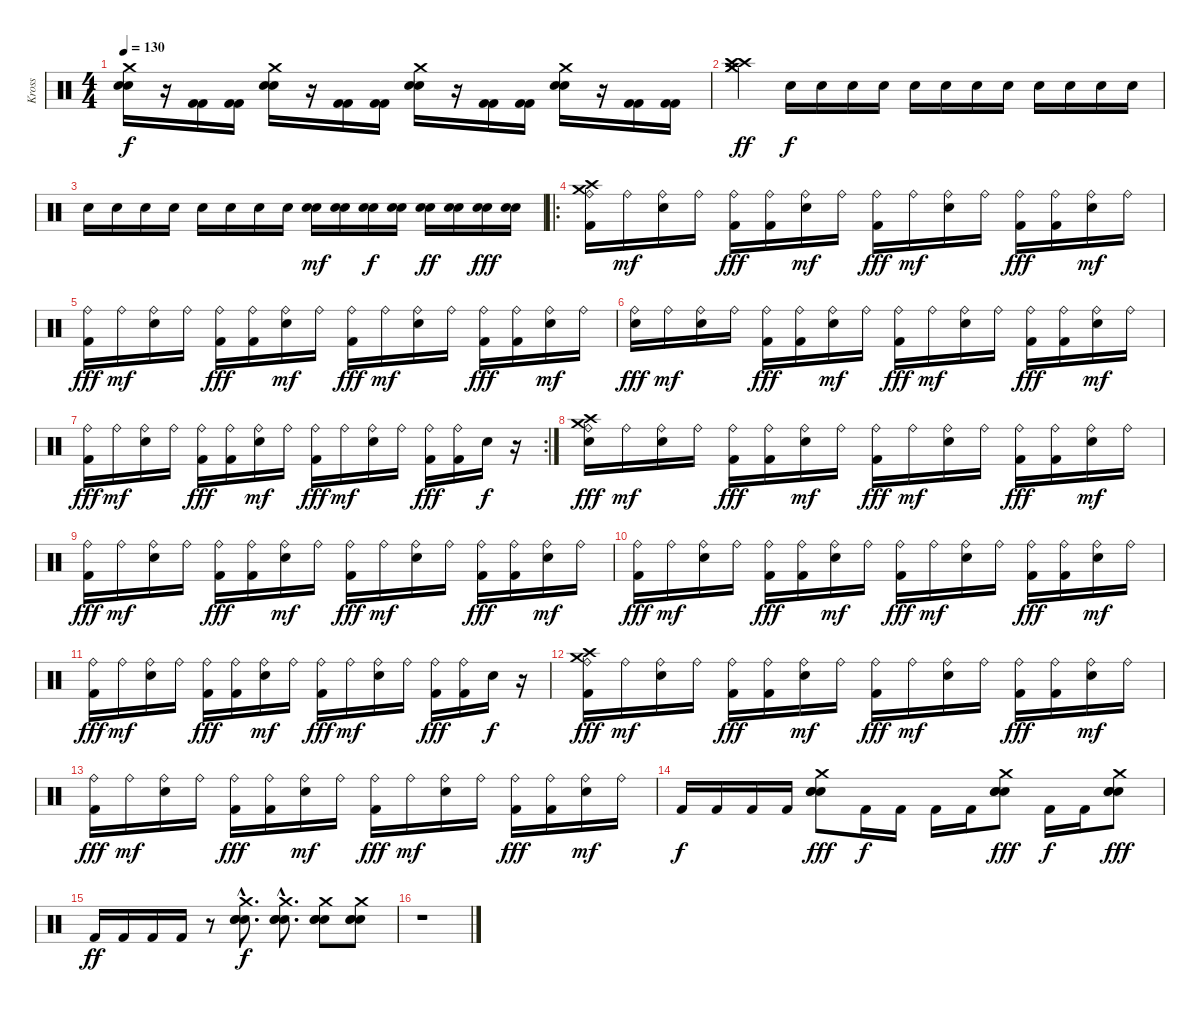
\track ("Kross" "Kross") {instrument percussion}
\staff {score}
\articulation defaults
\ts (4 4)
\tempo 130
\clef neutral
\ks c
("Crash medium (hit)" "Electric Snare (hit)" "Electric Snare (hit)").16{dy f} r.16 ("Kick (hit) 2" "Kick (hit) 2").16 ("Kick (hit) 2" "Kick (hit) 2").16 ("Crash medium (hit)" "Electric Snare (hit)" "Electric Snare (hit)").16 r.16 ("Kick (hit) 2" "Kick (hit) 2").16 ("Kick (hit) 2" "Kick (hit) 2").16 ("Crash medium (hit)" "Electric Snare (hit)" "Electric Snare (hit)").16 r.16 ("Kick (hit) 2" "Kick (hit) 2").16 ("Kick (hit) 2" "Kick (hit) 2").16 ("Crash medium (hit)" "Electric Snare (hit)" "Electric Snare (hit)").16 r.16 ("Kick (hit) 2" "Kick (hit) 2").16 ("Kick (hit) 2" "Kick (hit) 2").16 |
("Crash medium (hit)" "Crash high (hit)" "Crash medium (hit)" "Crash high (hit)").4{dy ff} "Electric Snare (hit)".16{dy f} "Electric Snare (hit)".16 "Electric Snare (hit)".16 "Electric Snare (hit)".16 "Electric Snare (hit)".16 "Electric Snare (hit)".16 "Electric Snare (hit)".16 "Electric Snare (hit)".16 "Electric Snare (hit)".16 "Electric Snare (hit)".16 "Electric Snare (hit)".16 "Electric Snare (hit)".16 |
"Electric Snare (hit)".16 "Electric Snare (hit)".16 "Electric Snare (hit)".16 "Electric Snare (hit)".16 "Electric Snare (hit)".16 "Electric Snare (hit)".16 "Electric Snare (hit)".16 "Electric Snare (hit)".16 ("Electric Snare (hit)" "Electric Snare (hit)").16{dy mf} ("Electric Snare (hit)" "Electric Snare (hit)").16 ("Electric Snare (hit)" "Electric Snare (hit)").16{dy f} ("Electric Snare (hit)" "Electric Snare (hit)").16 ("Electric Snare (hit)" "Electric Snare (hit)").16{dy ff} ("Electric Snare (hit)" "Electric Snare (hit)").16 ("Electric Snare (hit)" "Electric Snare (hit)").16{dy fff} ("Electric Snare (hit)" "Electric Snare (hit)").16 |
\ro
("Crash high (hit)" "Crash medium (hit)" "Ride (bell)" "Kick (hit) 2").16 "Ride (bell)".16{dy mf} ("Ride (bell)" "Electric Snare (hit)").16 "Ride (bell)".16 ("Ride (bell)" "Kick (hit) 2").16{dy fff} ("Ride (bell)" "Kick (hit) 2").16 ("Ride (bell)" "Electric Snare (hit)").16{dy mf} "Ride (bell)".16 ("Ride (bell)" "Kick (hit) 2").16{dy fff} "Ride (bell)".16{dy mf} ("Ride (bell)" "Electric Snare (hit)").16 "Ride (bell)".16 ("Ride (bell)" "Kick (hit) 2").16{dy fff} ("Ride (bell)" "Kick (hit) 2").16 ("Ride (bell)" "Electric Snare (hit)").16{dy mf} "Ride (bell)".16 |
("Ride (bell)" "Kick (hit) 2").16{dy fff} "Ride (bell)".16{dy mf} ("Ride (bell)" "Electric Snare (hit)").16 "Ride (bell)".16 ("Ride (bell)" "Kick (hit) 2").16{dy fff} ("Ride (bell)" "Kick (hit) 2").16 ("Ride (bell)" "Electric Snare (hit)").16{dy mf} "Ride (bell)".16 ("Ride (bell)" "Kick (hit) 2").16{dy fff} "Ride (bell)".16{dy mf} ("Ride (bell)" "Electric Snare (hit)").16 "Ride (bell)".16 ("Ride (bell)" "Kick (hit) 2").16{dy fff} ("Ride (bell)" "Kick (hit) 2").16 ("Ride (bell)" "Electric Snare (hit)").16{dy mf} "Ride (bell)".16 |
("Ride (bell)" "Electric Snare (hit)").16{dy fff} "Ride (bell)".16{dy mf} ("Ride (bell)" "Electric Snare (hit)").16 "Ride (bell)".16 ("Ride (bell)" "Kick (hit) 2").16{dy fff} ("Ride (bell)" "Kick (hit) 2").16 ("Ride (bell)" "Electric Snare (hit)").16{dy mf} "Ride (bell)".16 ("Ride (bell)" "Kick (hit) 2").16{dy fff} "Ride (bell)".16{dy mf} ("Ride (bell)" "Electric Snare (hit)").16 "Ride (bell)".16 ("Ride (bell)" "Kick (hit) 2").16{dy fff} ("Ride (bell)" "Kick (hit) 2").16 ("Ride (bell)" "Electric Snare (hit)").16{dy mf} "Ride (bell)".16 |
\rc 2
("Ride (bell)" "Kick (hit) 2").16{dy fff} "Ride (bell)".16{dy mf} ("Ride (bell)" "Electric Snare (hit)").16 "Ride (bell)".16 ("Ride (bell)" "Kick (hit) 2").16{dy fff} ("Ride (bell)" "Kick (hit) 2").16 ("Ride (bell)" "Electric Snare (hit)").16{dy mf} "Ride (bell)".16 ("Ride (bell)" "Kick (hit) 2").16{dy fff} "Ride (bell)".16{dy mf} ("Ride (bell)" "Electric Snare (hit)").16 "Ride (bell)".16 ("Ride (bell)" "Kick (hit) 2").16{dy fff} ("Ride (bell)" "Kick (hit) 2").16 "Electric Snare (hit)".16{dy f} r.16 |
("Crash high (hit)" "Crash medium (hit)" "Ride (bell)" "Electric Snare (hit)").16{dy fff} "Ride (bell)".16{dy mf} ("Ride (bell)" "Electric Snare (hit)").16 "Ride (bell)".16 ("Ride (bell)" "Kick (hit) 2").16{dy fff} ("Ride (bell)" "Kick (hit) 2").16 ("Ride (bell)" "Electric Snare (hit)").16{dy mf} "Ride (bell)".16 ("Ride (bell)" "Kick (hit) 2").16{dy fff} "Ride (bell)".16{dy mf} ("Ride (bell)" "Electric Snare (hit)").16 "Ride (bell)".16 ("Ride (bell)" "Kick (hit) 2").16{dy fff} ("Ride (bell)" "Kick (hit) 2").16 ("Ride (bell)" "Electric Snare (hit)").16{dy mf} "Ride (bell)".16 |
("Ride (bell)" "Kick (hit) 2").16{dy fff} "Ride (bell)".16{dy mf} ("Ride (bell)" "Electric Snare (hit)").16 "Ride (bell)".16 ("Ride (bell)" "Kick (hit) 2").16{dy fff} ("Ride (bell)" "Kick (hit) 2").16 ("Ride (bell)" "Electric Snare (hit)").16{dy mf} "Ride (bell)".16 ("Ride (bell)" "Kick (hit) 2").16{dy fff} "Ride (bell)".16{dy mf} ("Ride (bell)" "Electric Snare (hit)").16 "Ride (bell)".16 ("Ride (bell)" "Kick (hit) 2").16{dy fff} ("Ride (bell)" "Kick (hit) 2").16 ("Ride (bell)" "Electric Snare (hit)").16{dy mf} "Ride (bell)".16 |
("Ride (bell)" "Kick (hit) 2").16{dy fff} "Ride (bell)".16{dy mf} ("Ride (bell)" "Electric Snare (hit)").16 "Ride (bell)".16 ("Ride (bell)" "Kick (hit) 2").16{dy fff} ("Ride (bell)" "Kick (hit) 2").16 ("Ride (bell)" "Electric Snare (hit)").16{dy mf} "Ride (bell)".16 ("Ride (bell)" "Kick (hit) 2").16{dy fff} "Ride (bell)".16{dy mf} ("Ride (bell)" "Electric Snare (hit)").16 "Ride (bell)".16 ("Ride (bell)" "Kick (hit) 2").16{dy fff} ("Ride (bell)" "Kick (hit) 2").16 ("Ride (bell)" "Electric Snare (hit)").16{dy mf} "Ride (bell)".16 |
("Ride (bell)" "Kick (hit) 2").16{dy fff} "Ride (bell)".16{dy mf} ("Ride (bell)" "Electric Snare (hit)").16 "Ride (bell)".16 ("Ride (bell)" "Kick (hit) 2").16{dy fff} ("Ride (bell)" "Kick (hit) 2").16 ("Ride (bell)" "Electric Snare (hit)").16{dy mf} "Ride (bell)".16 ("Ride (bell)" "Kick (hit) 2").16{dy fff} "Ride (bell)".16{dy mf} ("Ride (bell)" "Electric Snare (hit)").16 "Ride (bell)".16 ("Ride (bell)" "Kick (hit) 2").16{dy fff} ("Ride (bell)" "Kick (hit) 2").16 "Electric Snare (hit)".16{dy f} r.16 |
("Crash high (hit)" "Crash medium (hit)" "Ride (bell)" "Kick (hit) 2").16{dy fff} "Ride (bell)".16{dy mf} ("Ride (bell)" "Electric Snare (hit)").16 "Ride (bell)".16 ("Ride (bell)" "Kick (hit) 2").16{dy fff} ("Ride (bell)" "Kick (hit) 2").16 ("Ride (bell)" "Electric Snare (hit)").16{dy mf} "Ride (bell)".16 ("Ride (bell)" "Kick (hit) 2").16{dy fff} "Ride (bell)".16{dy mf} ("Ride (bell)" "Electric Snare (hit)").16 "Ride (bell)".16 ("Ride (bell)" "Kick (hit) 2").16{dy fff} ("Ride (bell)" "Kick (hit) 2").16 ("Ride (bell)" "Electric Snare (hit)").16{dy mf} "Ride (bell)".16 |
("Ride (bell)" "Kick (hit) 2").16{dy fff} "Ride (bell)".16{dy mf} ("Ride (bell)" "Electric Snare (hit)").16 "Ride (bell)".16 ("Ride (bell)" "Kick (hit) 2").16{dy fff} ("Ride (bell)" "Kick (hit) 2").16 ("Ride (bell)" "Electric Snare (hit)").16{dy mf} "Ride (bell)".16 ("Ride (bell)" "Kick (hit) 2").16{dy fff} "Ride (bell)".16{dy mf} ("Ride (bell)" "Electric Snare (hit)").16 "Ride (bell)".16 ("Ride (bell)" "Kick (hit) 2").16{dy fff} ("Ride (bell)" "Kick (hit) 2").16 ("Ride (bell)" "Electric Snare (hit)").16{dy mf} "Ride (bell)".16 |
"Kick (hit) 2".16{dy f} "Kick (hit) 2".16 "Kick (hit) 2".16 "Kick (hit) 2".16 ("Crash medium (hit)" "Electric Snare (hit)" "Electric Snare (hit)" "Electric Snare (hit)").8{dy fff} "Kick (hit) 2".16{dy f} "Kick (hit) 2".16 "Kick (hit) 2".16 "Kick (hit) 2".16 ("Crash medium (hit)" "Electric Snare (hit)" "Electric Snare (hit)" "Electric Snare (hit)").8{dy fff} "Kick (hit) 2".16{dy f} "Kick (hit) 2".16 ("Crash medium (hit)" "Electric Snare (hit)" "Electric Snare (hit)" "Electric Snare (hit)").8{dy fff} |
"Kick (hit) 2".16{dy ff} "Kick (hit) 2".16 "Kick (hit) 2".16 "Kick (hit) 2".16 r.8 ("Crash medium (hit)"{hac} "Electric Snare (hit)"{hac} "Electric Snare (hit)"{hac} "Electric Snare (hit)"{hac}).8{d dy f} ("Crash medium (hit)"{hac} "Electric Snare (hit)"{hac} "Electric Snare (hit)"{hac} "Electric Snare (hit)"{hac}).8{d} ("Crash medium (hit)" "Electric Snare (hit)" "Electric Snare (hit)" "Electric Snare (hit)").8 ("Crash medium (hit)" "Electric Snare (hit)" "Electric Snare (hit)" "Electric Snare (hit)").8 |
r.1
